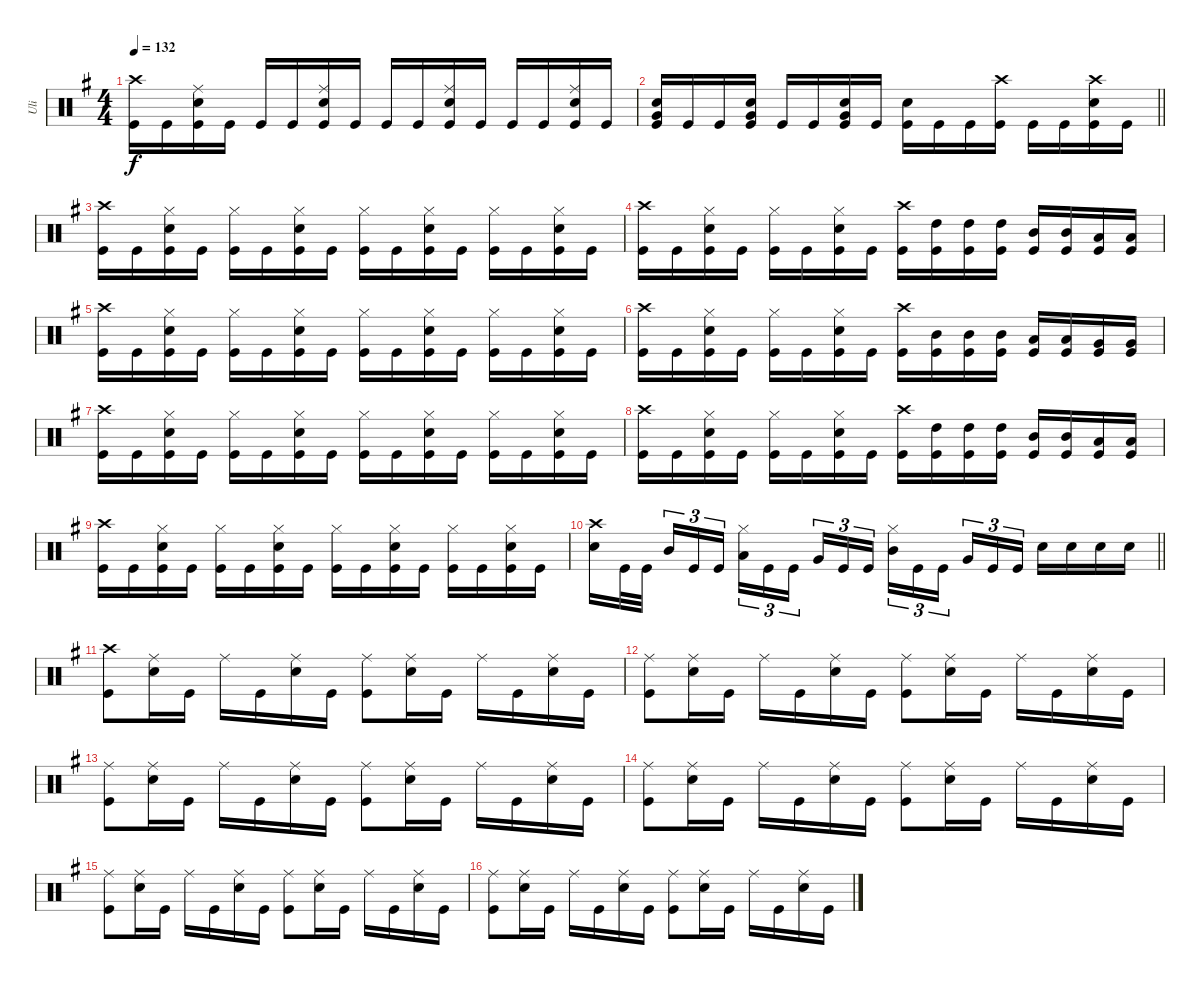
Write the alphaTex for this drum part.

\track ("Uli" "Uli") {instrument percussion}
\staff {score}
\articulation defaults
\ts (4 4)
\tempo 132
\clef neutral
\ks eminor
("Crash high (hit)" "Kick (hit)").16{dy f} "Kick (hit)".16 ("Ride (middle)" "Snare (hit) 2" "Kick (hit)").16 "Kick (hit)".16 "Kick (hit)".16 "Kick (hit)".16 ("Ride (middle)" "Snare (hit) 2" "Kick (hit)").16 "Kick (hit)".16 "Kick (hit)".16 "Kick (hit)".16 ("Ride (middle)" "Snare (hit) 2" "Kick (hit)").16 "Kick (hit)".16 "Kick (hit)".16 "Kick (hit)".16 ("Ride (middle)" "Snare (hit) 2" "Kick (hit)").16 "Kick (hit)".16 |
\barLineRight lightlight
("Snare (hit) 2" "Very Low Tom (hit)" "Kick (hit)").16 "Kick (hit)".16 "Kick (hit)".16 ("Snare (hit) 2" "Very Low Tom (hit)" "Kick (hit)").16 "Kick (hit)".16 "Kick (hit)".16 ("Snare (hit) 2" "Very Low Tom (hit)" "Kick (hit)").16 "Kick (hit)".16 ("Snare (hit) 2" "Kick (hit)").16 "Kick (hit)".16 "Kick (hit)".16 ("Crash high (hit)" "Kick (hit)").16 "Kick (hit)".16 "Kick (hit)".16 ("Crash high (hit)" "Snare (hit) 2" "Kick (hit)").16 "Kick (hit)".16 |
("Crash high (hit)" "Kick (hit)").16 "Kick (hit)".16 ("Hi-Hat (closed)" "Snare (hit) 2" "Kick (hit)").16 "Kick (hit)".16 ("Hi-Hat (closed)" "Kick (hit)").16 "Kick (hit)".16 ("Hi-Hat (closed)" "Snare (hit) 2" "Kick (hit)").16 "Kick (hit)".16 ("Hi-Hat (closed)" "Kick (hit)").16 "Kick (hit)".16 ("Hi-Hat (closed)" "Snare (hit) 2" "Kick (hit)").16 "Kick (hit)".16 ("Hi-Hat (closed)" "Kick (hit)").16 "Kick (hit)".16 ("Hi-Hat (closed)" "Snare (hit) 2" "Kick (hit)").16 "Kick (hit)".16 |
("Crash high (hit)" "Kick (hit)").16 "Kick (hit)".16 ("Hi-Hat (closed)" "Snare (hit) 2" "Kick (hit)").16 "Kick (hit)".16 ("Hi-Hat (closed)" "Kick (hit)").16 "Kick (hit)".16 ("Hi-Hat (closed)" "Snare (hit) 2" "Kick (hit)").16 "Kick (hit)".16 ("Crash high (hit)" "Kick (hit)").16 ("High Tom (hit)" "Kick (hit)").16 ("High Tom (hit)" "Kick (hit)").16 ("High Tom (hit)" "Kick (hit)").16 ("Mid Tom (hit)" "Kick (hit)").16 ("Mid Tom (hit)" "Kick (hit)").16 ("Low Tom (hit)" "Kick (hit)").16 ("Low Tom (hit)" "Kick (hit)").16 |
("Crash high (hit)" "Kick (hit)").16 "Kick (hit)".16 ("Hi-Hat (closed)" "Snare (hit) 2" "Kick (hit)").16 "Kick (hit)".16 ("Hi-Hat (closed)" "Kick (hit)").16 "Kick (hit)".16 ("Hi-Hat (closed)" "Snare (hit) 2" "Kick (hit)").16 "Kick (hit)".16 ("Hi-Hat (closed)" "Kick (hit)").16 "Kick (hit)".16 ("Hi-Hat (closed)" "Snare (hit) 2" "Kick (hit)").16 "Kick (hit)".16 ("Hi-Hat (closed)" "Kick (hit)").16 "Kick (hit)".16 ("Hi-Hat (closed)" "Snare (hit) 2" "Kick (hit)").16 "Kick (hit)".16 |
("Crash high (hit)" "Kick (hit)").16 "Kick (hit)".16 ("Hi-Hat (closed)" "Snare (hit) 2" "Kick (hit)").16 "Kick (hit)".16 ("Hi-Hat (closed)" "Kick (hit)").16 "Kick (hit)".16 ("Hi-Hat (closed)" "Snare (hit) 2" "Kick (hit)").16 "Kick (hit)".16 ("Crash high (hit)" "Kick (hit)").16 ("Mid Tom (hit)" "Kick (hit)").16 ("Mid Tom (hit)" "Kick (hit)").16 ("Mid Tom (hit)" "Kick (hit)").16 ("Low Tom (hit)" "Kick (hit)").16 ("Low Tom (hit)" "Kick (hit)").16 ("Very Low Tom (hit)" "Kick (hit)").16 ("Very Low Tom (hit)" "Kick (hit)").16 |
("Crash high (hit)" "Kick (hit)").16 "Kick (hit)".16 ("Hi-Hat (closed)" "Snare (hit) 2" "Kick (hit)").16 "Kick (hit)".16 ("Hi-Hat (closed)" "Kick (hit)").16 "Kick (hit)".16 ("Hi-Hat (closed)" "Snare (hit) 2" "Kick (hit)").16 "Kick (hit)".16 ("Hi-Hat (closed)" "Kick (hit)").16 "Kick (hit)".16 ("Hi-Hat (closed)" "Snare (hit) 2" "Kick (hit)").16 "Kick (hit)".16 ("Hi-Hat (closed)" "Kick (hit)").16 "Kick (hit)".16 ("Hi-Hat (closed)" "Snare (hit) 2" "Kick (hit)").16 "Kick (hit)".16 |
("Crash high (hit)" "Kick (hit)").16 "Kick (hit)".16 ("Hi-Hat (closed)" "Snare (hit) 2" "Kick (hit)").16 "Kick (hit)".16 ("Hi-Hat (closed)" "Kick (hit)").16 "Kick (hit)".16 ("Hi-Hat (closed)" "Snare (hit) 2" "Kick (hit)").16 "Kick (hit)".16 ("Crash high (hit)" "Kick (hit)").16 ("High Tom (hit)" "Kick (hit)").16 ("High Tom (hit)" "Kick (hit)").16 ("High Tom (hit)" "Kick (hit)").16 ("Mid Tom (hit)" "Kick (hit)").16 ("Mid Tom (hit)" "Kick (hit)").16 ("Low Tom (hit)" "Kick (hit)").16 ("Low Tom (hit)" "Kick (hit)").16 |
("Crash high (hit)" "Kick (hit)").16 "Kick (hit)".16 ("Hi-Hat (closed)" "Snare (hit) 2" "Kick (hit)").16 "Kick (hit)".16 ("Hi-Hat (closed)" "Kick (hit)").16 "Kick (hit)".16 ("Hi-Hat (closed)" "Snare (hit) 2" "Kick (hit)").16 "Kick (hit)".16 ("Hi-Hat (closed)" "Kick (hit)").16 "Kick (hit)".16 ("Hi-Hat (closed)" "Snare (hit) 2" "Kick (hit)").16 "Kick (hit)".16 ("Hi-Hat (closed)" "Kick (hit)").16 "Kick (hit)".16 ("Hi-Hat (closed)" "Snare (hit) 2" "Kick (hit)").16 "Kick (hit)".16 |
\barLineRight lightlight
("Crash high (hit)" "Snare (hit) 2").16 "Kick (hit)".32 "Kick (hit)".32{beam splitsecondary} "Mid Tom (hit)".16{tu (3 2)} "Kick (hit)".16{tu (3 2)} "Kick (hit)".16{tu (3 2)} ("Hi-Hat (closed)" "Low Tom (hit)").16{tu (3 2)} "Kick (hit)".16{tu (3 2)} "Kick (hit)".16{tu (3 2) beam splitsecondary} "Very Low Tom (hit)".16{tu (3 2)} "Kick (hit)".16{tu (3 2)} "Kick (hit)".16{tu (3 2)} ("Hi-Hat (closed)" "Mid Tom (hit)").16{tu (3 2)} "Kick (hit)".16{tu (3 2)} "Kick (hit)".16{tu (3 2) beam splitsecondary} "Very Low Tom (hit)".16{tu (3 2)} "Kick (hit)".16{tu (3 2)} "Kick (hit)".16{tu (3 2)} "Snare (hit) 2".16 "Snare (hit) 2".16 "Snare (hit) 2".16 "Snare (hit) 2".16 |
("Crash high (hit)" "Kick (hit)").8 ("Ride (middle)" "Snare (hit) 2").16 "Kick (hit)".16 "Ride (middle)".16 "Kick (hit)".16 ("Ride (middle)" "Snare (hit) 2").16 "Kick (hit)".16 ("Ride (middle)" "Kick (hit)").8 ("Ride (middle)" "Snare (hit) 2").16 "Kick (hit)".16 "Ride (middle)".16 "Kick (hit)".16 ("Ride (middle)" "Snare (hit) 2").16 "Kick (hit)".16 |
("Ride (middle)" "Kick (hit)").8 ("Ride (middle)" "Snare (hit) 2").16 "Kick (hit)".16 "Ride (middle)".16 "Kick (hit)".16 ("Ride (middle)" "Snare (hit) 2").16 "Kick (hit)".16 ("Ride (middle)" "Kick (hit)").8 ("Ride (middle)" "Snare (hit) 2").16 "Kick (hit)".16 "Ride (middle)".16 "Kick (hit)".16 ("Ride (middle)" "Snare (hit) 2").16 "Kick (hit)".16 |
("Ride (middle)" "Kick (hit)").8 ("Ride (middle)" "Snare (hit) 2").16 "Kick (hit)".16 "Ride (middle)".16 "Kick (hit)".16 ("Ride (middle)" "Snare (hit) 2").16 "Kick (hit)".16 ("Ride (middle)" "Kick (hit)").8 ("Ride (middle)" "Snare (hit) 2").16 "Kick (hit)".16 "Ride (middle)".16 "Kick (hit)".16 ("Ride (middle)" "Snare (hit) 2").16 "Kick (hit)".16 |
("Ride (middle)" "Kick (hit)").8 ("Ride (middle)" "Snare (hit) 2").16 "Kick (hit)".16 "Ride (middle)".16 "Kick (hit)".16 ("Ride (middle)" "Snare (hit) 2").16 "Kick (hit)".16 ("Ride (middle)" "Kick (hit)").8 ("Ride (middle)" "Snare (hit) 2").16 "Kick (hit)".16 "Ride (middle)".16 "Kick (hit)".16 ("Ride (middle)" "Snare (hit) 2").16 "Kick (hit)".16 |
("Ride (middle)" "Kick (hit)").8 ("Ride (middle)" "Snare (hit) 2").16 "Kick (hit)".16 "Ride (middle)".16 "Kick (hit)".16 ("Ride (middle)" "Snare (hit) 2").16 "Kick (hit)".16 ("Ride (middle)" "Kick (hit)").8 ("Ride (middle)" "Snare (hit) 2").16 "Kick (hit)".16 "Ride (middle)".16 "Kick (hit)".16 ("Ride (middle)" "Snare (hit) 2").16 "Kick (hit)".16 |
("Ride (middle)" "Kick (hit)").8 ("Ride (middle)" "Snare (hit) 2").16 "Kick (hit)".16 "Ride (middle)".16 "Kick (hit)".16 ("Ride (middle)" "Snare (hit) 2").16 "Kick (hit)".16 ("Ride (middle)" "Kick (hit)").8 ("Ride (middle)" "Snare (hit) 2").16 "Kick (hit)".16 "Ride (middle)".16 "Kick (hit)".16 ("Ride (middle)" "Snare (hit) 2").16 "Kick (hit)".16
